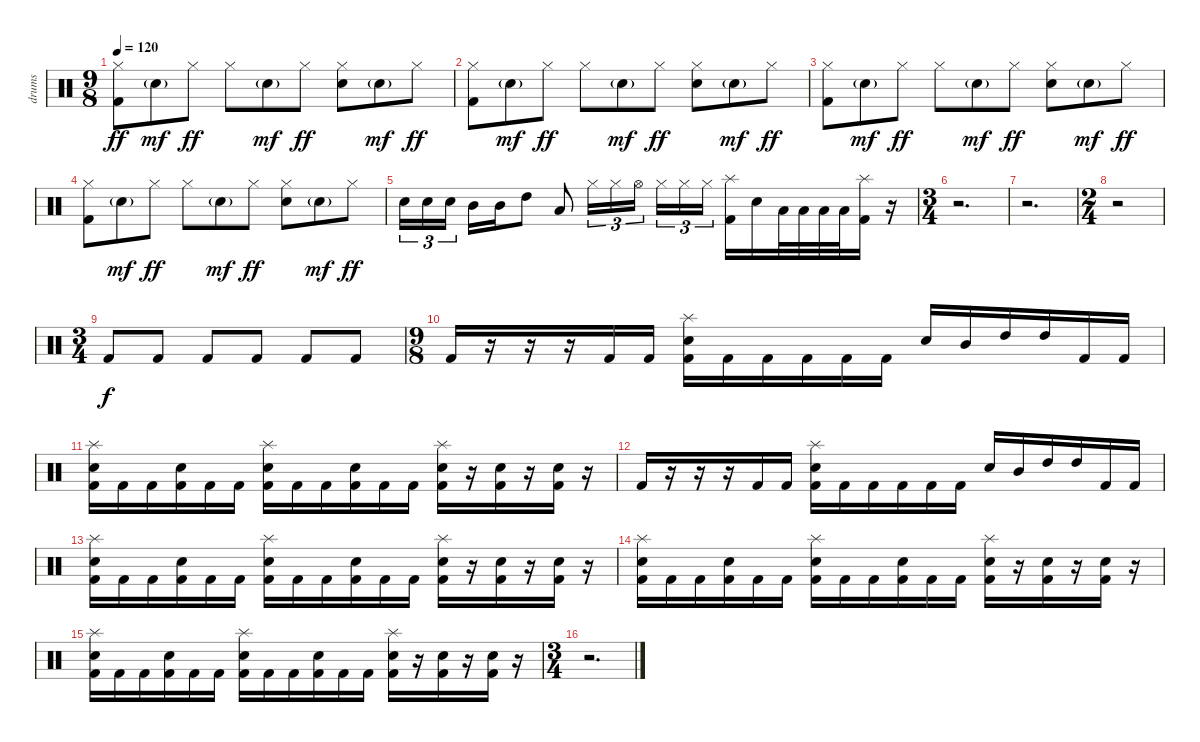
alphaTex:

\track ("drums" "drums") {instrument percussion}
\staff {score}
\articulation defaults
\ts (9 8)
\tempo 120
\clef neutral
\ks c
("Kick (hit) 2" "Hi-Hat (closed)").8{dy ff} "Snare (hit) 2"{g}.8{dy mf} "Hi-Hat (closed)".8{dy ff} "Hi-Hat (closed)".8 "Snare (hit) 2"{g}.8{dy mf} "Hi-Hat (closed)".8{dy ff} ("Snare (hit) 2" "Hi-Hat (closed)").8 "Snare (hit) 2"{g}.8{dy mf} "Hi-Hat (closed)".8{dy ff} |
("Kick (hit) 2" "Hi-Hat (closed)").8 "Snare (hit) 2"{g}.8{dy mf} "Hi-Hat (closed)".8{dy ff} "Hi-Hat (closed)".8 "Snare (hit) 2"{g}.8{dy mf} "Hi-Hat (closed)".8{dy ff} ("Snare (hit) 2" "Hi-Hat (closed)").8 "Snare (hit) 2"{g}.8{dy mf} "Hi-Hat (closed)".8{dy ff} |
("Kick (hit) 2" "Hi-Hat (closed)").8 "Snare (hit) 2"{g}.8{dy mf} "Hi-Hat (closed)".8{dy ff} "Hi-Hat (closed)".8 "Snare (hit) 2"{g}.8{dy mf} "Hi-Hat (closed)".8{dy ff} ("Snare (hit) 2" "Hi-Hat (closed)").8 "Snare (hit) 2"{g}.8{dy mf} "Hi-Hat (closed)".8{dy ff} |
("Kick (hit) 2" "Hi-Hat (closed)").8 "Snare (hit) 2"{g}.8{dy mf} "Hi-Hat (closed)".8{dy ff} "Hi-Hat (closed)".8 "Snare (hit) 2"{g}.8{dy mf} "Hi-Hat (closed)".8{dy ff} ("Snare (hit) 2" "Hi-Hat (closed)").8 "Snare (hit) 2"{g}.8{dy mf} "Hi-Hat (closed)".8{dy ff} |
"Snare (hit) 2".16{tu (3 2)} "Snare (hit) 2".16{tu (3 2)} "Snare (hit) 2".16{tu (3 2) beam splitsecondary} "Mid Tom (hit)".16 "Mid Tom (hit)".16 "High Tom (hit)".8 "Low Tom (hit)".8 "Hi-Hat (closed)".16{tu (3 2)} "Hi-Hat (closed)".16{tu (3 2)} "Hi-Hat (open)".16{tu (3 2) beam splitsecondary} "Hi-Hat (closed)".16{tu (3 2)} "Hi-Hat (closed)".16{tu (3 2)} "Hi-Hat (closed)".16{tu (3 2)} ("Splash (hit)" "Kick (hit) 2").16 "Snare (hit) 2".16 "Low Tom (hit)".32 "Low Tom (hit)".32 "Low Tom (hit)".32 "Low Tom (hit)".32 ("Kick (hit) 2" "Splash (hit)").16 r.16 |
\ts (3 4)
r.2{d} |
r.2{d} |
\ts (2 4)
r.2 |
\ts (3 4)
"Kick (hit) 2".8{dy f} "Kick (hit) 2".8 "Kick (hit) 2".8 "Kick (hit) 2".8 "Kick (hit) 2".8 "Kick (hit) 2".8 |
\ts (9 8)
"Kick (hit) 2".16 r.16 r.16 r.16 "Kick (hit) 2".16 "Kick (hit) 2".16 ("Kick (hit) 2" "Splash (hit)" "Snare (hit) 2").16 "Kick (hit) 2".16 "Kick (hit) 2".16 "Kick (hit) 2".16 "Kick (hit) 2".16 "Kick (hit) 2".16 "Snare (hit) 2".16 "Mid Tom (hit)".16 "High Tom (hit)".16 "High Tom (hit)".16 "Kick (hit) 2".16 "Kick (hit) 2".16 |
("Kick (hit) 2" "Splash (hit)" "Snare (hit) 2").16 "Kick (hit) 2".16 "Kick (hit) 2".16 ("Kick (hit) 2" "Snare (hit) 2").16 "Kick (hit) 2".16 "Kick (hit) 2".16 ("Kick (hit) 2" "Splash (hit)" "Snare (hit) 2").16 "Kick (hit) 2".16 "Kick (hit) 2".16 ("Kick (hit) 2" "Snare (hit) 2").16 "Kick (hit) 2".16 "Kick (hit) 2".16 ("Kick (hit) 2" "Splash (hit)" "Snare (hit) 2").16 r.16 ("Kick (hit) 2" "Snare (hit) 2").16 r.16 ("Kick (hit) 2" "Snare (hit) 2").16 r.16 |
"Kick (hit) 2".16 r.16 r.16 r.16 "Kick (hit) 2".16 "Kick (hit) 2".16 ("Kick (hit) 2" "Splash (hit)" "Snare (hit) 2").16 "Kick (hit) 2".16 "Kick (hit) 2".16 "Kick (hit) 2".16 "Kick (hit) 2".16 "Kick (hit) 2".16 "Snare (hit) 2".16 "Mid Tom (hit)".16 "High Tom (hit)".16 "High Tom (hit)".16 "Kick (hit) 2".16 "Kick (hit) 2".16 |
("Kick (hit) 2" "Splash (hit)" "Snare (hit) 2").16 "Kick (hit) 2".16 "Kick (hit) 2".16 ("Kick (hit) 2" "Snare (hit) 2").16 "Kick (hit) 2".16 "Kick (hit) 2".16 ("Kick (hit) 2" "Splash (hit)" "Snare (hit) 2").16 "Kick (hit) 2".16 "Kick (hit) 2".16 ("Kick (hit) 2" "Snare (hit) 2").16 "Kick (hit) 2".16 "Kick (hit) 2".16 ("Kick (hit) 2" "Splash (hit)" "Snare (hit) 2").16 r.16 ("Kick (hit) 2" "Snare (hit) 2").16 r.16 ("Kick (hit) 2" "Snare (hit) 2").16 r.16 |
("Kick (hit) 2" "Splash (hit)" "Snare (hit) 2").16 "Kick (hit) 2".16 "Kick (hit) 2".16 ("Kick (hit) 2" "Snare (hit) 2").16 "Kick (hit) 2".16 "Kick (hit) 2".16 ("Kick (hit) 2" "Splash (hit)" "Snare (hit) 2").16 "Kick (hit) 2".16 "Kick (hit) 2".16 ("Kick (hit) 2" "Snare (hit) 2").16 "Kick (hit) 2".16 "Kick (hit) 2".16 ("Kick (hit) 2" "Splash (hit)" "Snare (hit) 2").16 r.16 ("Kick (hit) 2" "Snare (hit) 2").16 r.16 ("Kick (hit) 2" "Snare (hit) 2").16 r.16 |
("Kick (hit) 2" "Splash (hit)" "Snare (hit) 2").16 "Kick (hit) 2".16 "Kick (hit) 2".16 ("Kick (hit) 2" "Snare (hit) 2").16 "Kick (hit) 2".16 "Kick (hit) 2".16 ("Kick (hit) 2" "Splash (hit)" "Snare (hit) 2").16 "Kick (hit) 2".16 "Kick (hit) 2".16 ("Kick (hit) 2" "Snare (hit) 2").16 "Kick (hit) 2".16 "Kick (hit) 2".16 ("Kick (hit) 2" "Splash (hit)" "Snare (hit) 2").16 r.16 ("Kick (hit) 2" "Snare (hit) 2").16 r.16 ("Kick (hit) 2" "Snare (hit) 2").16 r.16 |
\ts (3 4)
r.2{d}
